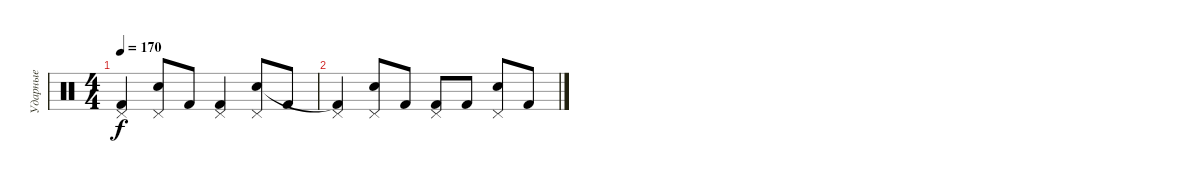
\track ("Ударные" "Ударные") {instrument percussion}
\staff {score}
\articulation defaults
\ts (4 4)
\tempo 170
\clef neutral
\ks c
("Pedal Hi-Hat (hit)" "Kick (hit) 2").4{dy f} ("Pedal Hi-Hat (hit)" "Snare (hit) 2").8 "Kick (hit) 2".8 ("Pedal Hi-Hat (hit)" "Kick (hit) 2").4 ("Pedal Hi-Hat (hit)" "Snare (hit) 2").8 "Kick (hit) 2".8 |
("Pedal Hi-Hat (hit)" "Kick (hit) 2"{t}).4 ("Pedal Hi-Hat (hit)" "Snare (hit) 2").8 "Kick (hit) 2".8 ("Pedal Hi-Hat (hit)" "Kick (hit) 2").8 "Kick (hit) 2".8 ("Pedal Hi-Hat (hit)" "Snare (hit) 2").8 "Kick (hit) 2".8
